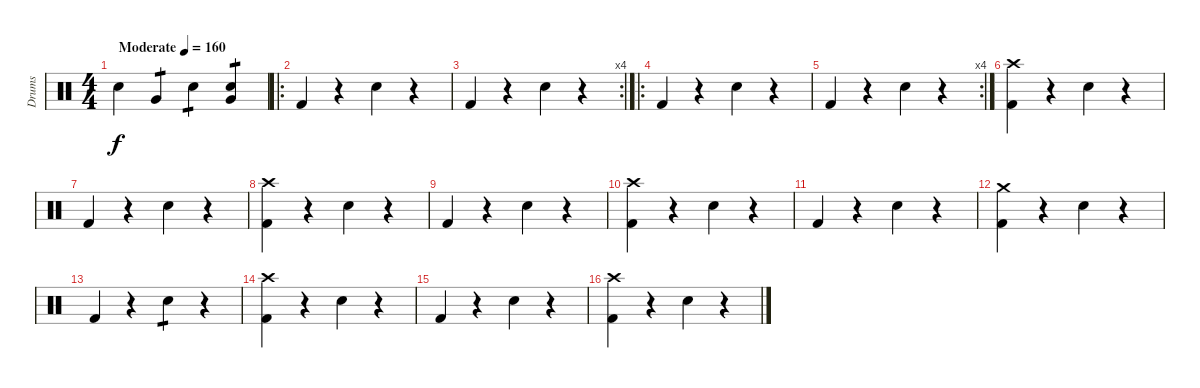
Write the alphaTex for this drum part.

\track ("Drums" "Drums") {instrument percussion}
\staff {score}
\articulation defaults
\ts (4 4)
\tempo (160 "Moderate")
\clef neutral
\ks c "Snare (hit) 2".4{dy f} "Very Low Tom (hit)".4{tp 1} "Snare (hit) 2".4{tp 1}
("Very Low Tom (hit)" "Snare (hit) 2").4{tp 1} |
\ro "Kick (hit) 2".4
r.4 "Snare (hit) 2".4 r.4 |
\rc 4 "Kick (hit) 2".4
r.4 "Snare (hit) 2".4 r.4 |
\ro "Kick (hit) 2".4
r.4 "Snare (hit) 2".4 r.4 |
\rc 4 "Kick (hit) 2".4
r.4 "Snare (hit) 2".4 r.4 |
("Kick (hit) 2" "Crash high (hit)").4 r.4 "Snare (hit) 2".4 r.4 |
"Kick (hit) 2".4 r.4 "Snare (hit) 2".4 r.4 |
("Kick (hit) 2" "Crash high (hit)").4 r.4 "Snare (hit) 2".4 r.4 |
"Kick (hit) 2".4 r.4 "Snare (hit) 2".4 r.4 |
("Kick (hit) 2" "Crash high (hit)").4 r.4 "Snare (hit) 2".4 r.4 |
"Kick (hit) 2".4 r.4 "Snare (hit) 2".4 r.4 |
("Kick (hit) 2" "Crash medium (hit)").4 r.4 "Snare (hit) 2".4 r.4 |
"Kick (hit) 2".4 r.4 "Snare (hit) 2".4{tp 1} r.4 |
("Kick (hit) 2" "Crash high (hit)").4 r.4 "Snare (hit) 2".4 r.4 |
"Kick (hit) 2".4 r.4 "Snare (hit) 2".4 r.4 |
("Kick (hit) 2" "Crash high (hit)").4 r.4 "Snare (hit) 2".4 r.4
